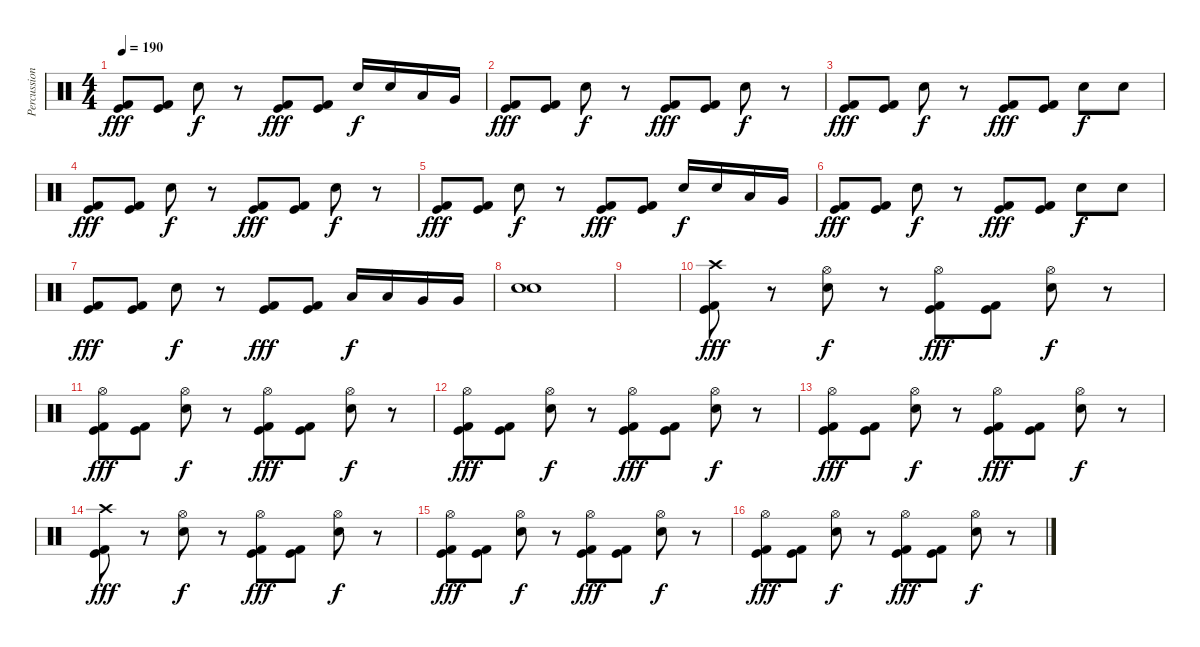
\track ("Percussion" "Percussion") {instrument percussion}
\staff {score}
\articulation defaults
\ts (4 4)
\tempo 190
\clef neutral
\ks c
("Kick (hit)" "Kick (hit) 2").8{dy fff} ("Kick (hit)" "Kick (hit) 2").8 "Electric Snare (hit)".8{dy f} r.8 ("Kick (hit)" "Kick (hit) 2").8{dy fff} ("Kick (hit)" "Kick (hit) 2").8 "Electric Snare (hit)".16{dy f} "Electric Snare (hit)".16 "Low Tom (hit)".16 "Very Low Tom (hit)".16 |
("Kick (hit)" "Kick (hit) 2").8{dy fff} ("Kick (hit)" "Kick (hit) 2").8 "Electric Snare (hit)".8{dy f} r.8 ("Kick (hit)" "Kick (hit) 2").8{dy fff} ("Kick (hit)" "Kick (hit) 2").8 "Electric Snare (hit)".8{dy f} r.8 |
("Kick (hit)" "Kick (hit) 2").8{dy fff} ("Kick (hit)" "Kick (hit) 2").8 "Electric Snare (hit)".8{dy f} r.8 ("Kick (hit)" "Kick (hit) 2").8{dy fff} ("Kick (hit)" "Kick (hit) 2").8 "Electric Snare (hit)".8{dy f} "Electric Snare (hit)".8 |
("Kick (hit)" "Kick (hit) 2").8{dy fff} ("Kick (hit)" "Kick (hit) 2").8 "Electric Snare (hit)".8{dy f} r.8 ("Kick (hit)" "Kick (hit) 2").8{dy fff} ("Kick (hit)" "Kick (hit) 2").8 "Electric Snare (hit)".8{dy f} r.8 |
("Kick (hit)" "Kick (hit) 2").8{dy fff} ("Kick (hit)" "Kick (hit) 2").8 "Electric Snare (hit)".8{dy f} r.8 ("Kick (hit)" "Kick (hit) 2").8{dy fff} ("Kick (hit)" "Kick (hit) 2").8 "Electric Snare (hit)".16{dy f} "Electric Snare (hit)".16 "Low Tom (hit)".16 "Very Low Tom (hit)".16 |
("Kick (hit)" "Kick (hit) 2").8{dy fff} ("Kick (hit)" "Kick (hit) 2").8 "Electric Snare (hit)".8{dy f} r.8 ("Kick (hit)" "Kick (hit) 2").8{dy fff} ("Kick (hit)" "Kick (hit) 2").8 "Electric Snare (hit)".8{dy f} "Electric Snare (hit)".8 |
("Kick (hit)" "Kick (hit) 2").8{dy fff} ("Kick (hit)" "Kick (hit) 2").8 "Electric Snare (hit)".8{dy f} r.8 ("Kick (hit)" "Kick (hit) 2").8{dy fff} ("Kick (hit)" "Kick (hit) 2").8 "Low Tom (hit)".16{dy f} "Low Tom (hit)".16 "Very Low Tom (hit)".16 "Very Low Tom (hit)".16 |
("Electric Snare (hit)" "Electric Snare (hit)").1{bu 60} |
|
("Crash high (hit)" "Kick (hit)" "Kick (hit) 2").8{dy fff} r.8 ("Hi-Hat (open)" "Electric Snare (hit)").8{dy f} r.8 ("Hi-Hat (open)" "Kick (hit)" "Kick (hit) 2").8{dy fff} ("Kick (hit)" "Kick (hit) 2").8 ("Hi-Hat (open)" "Electric Snare (hit)").8{dy f} r.8 |
("Hi-Hat (open)" "Kick (hit)" "Kick (hit) 2").8{dy fff} ("Kick (hit)" "Kick (hit) 2").8 ("Hi-Hat (open)" "Electric Snare (hit)").8{dy f} r.8 ("Hi-Hat (open)" "Kick (hit)" "Kick (hit) 2").8{dy fff} ("Kick (hit)" "Kick (hit) 2").8 ("Hi-Hat (open)" "Electric Snare (hit)").8{dy f} r.8 |
("Hi-Hat (open)" "Kick (hit)" "Kick (hit) 2").8{dy fff} ("Kick (hit)" "Kick (hit) 2").8 ("Hi-Hat (open)" "Electric Snare (hit)").8{dy f} r.8 ("Hi-Hat (open)" "Kick (hit)" "Kick (hit) 2").8{dy fff} ("Kick (hit)" "Kick (hit) 2").8 ("Hi-Hat (open)" "Electric Snare (hit)").8{dy f} r.8 |
("Hi-Hat (open)" "Kick (hit)" "Kick (hit) 2").8{dy fff} ("Kick (hit)" "Kick (hit) 2").8 ("Hi-Hat (open)" "Electric Snare (hit)").8{dy f} r.8 ("Hi-Hat (open)" "Kick (hit)" "Kick (hit) 2").8{dy fff} ("Kick (hit)" "Kick (hit) 2").8 ("Hi-Hat (open)" "Electric Snare (hit)").8{dy f} r.8 |
("Crash high (hit)" "Kick (hit)" "Kick (hit) 2").8{dy fff} r.8 ("Hi-Hat (open)" "Electric Snare (hit)").8{dy f} r.8 ("Hi-Hat (open)" "Kick (hit)" "Kick (hit) 2").8{dy fff} ("Kick (hit)" "Kick (hit) 2").8 ("Hi-Hat (open)" "Electric Snare (hit)").8{dy f} r.8 |
("Hi-Hat (open)" "Kick (hit)" "Kick (hit) 2").8{dy fff} ("Kick (hit)" "Kick (hit) 2").8 ("Hi-Hat (open)" "Electric Snare (hit)").8{dy f} r.8 ("Hi-Hat (open)" "Kick (hit)" "Kick (hit) 2").8{dy fff} ("Kick (hit)" "Kick (hit) 2").8 ("Hi-Hat (open)" "Electric Snare (hit)").8{dy f} r.8 |
("Hi-Hat (open)" "Kick (hit)" "Kick (hit) 2").8{dy fff} ("Kick (hit)" "Kick (hit) 2").8 ("Hi-Hat (open)" "Electric Snare (hit)").8{dy f} r.8 ("Hi-Hat (open)" "Kick (hit)" "Kick (hit) 2").8{dy fff} ("Kick (hit)" "Kick (hit) 2").8 ("Hi-Hat (open)" "Electric Snare (hit)").8{dy f} r.8
